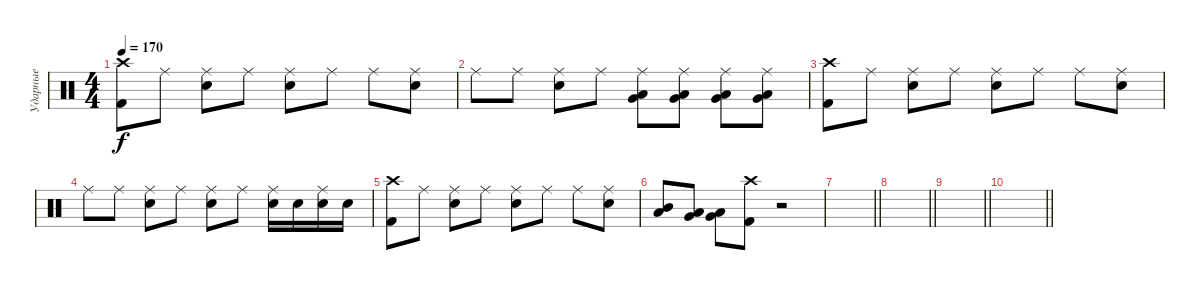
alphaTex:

\track ("Ударные" "Ударные") {instrument percussion}
\staff {score}
\articulation defaults
\ts (4 4)
\tempo 170
\clef neutral
\ks c
("Crash high (hit)" "Kick (hit) 2").8{dy f} "Ride (middle)".8 ("Ride (middle)" "Electric Snare (hit)").8 "Ride (middle)".8 ("Ride (middle)" "Electric Snare (hit)").8 "Ride (middle)".8 "Ride (middle)".8 ("Ride (middle)" "Electric Snare (hit)").8 |
"Ride (middle)".8 "Ride (middle)".8 ("Ride (middle)" "Electric Snare (hit)").8 "Ride (middle)".8 ("Ride (middle)" "Very Low Tom (hit)" "Low Tom (hit)").8 ("Ride (middle)" "Very Low Tom (hit)" "Low Tom (hit)").8 ("Ride (middle)" "Very Low Tom (hit)" "Low Tom (hit)").8 ("Ride (middle)" "Very Low Tom (hit)" "Low Tom (hit)").8 |
("Crash high (hit)" "Kick (hit) 2").8 "Ride (middle)".8 ("Ride (middle)" "Electric Snare (hit)").8 "Ride (middle)".8 ("Ride (middle)" "Electric Snare (hit)").8 "Ride (middle)".8 "Ride (middle)".8 ("Ride (middle)" "Electric Snare (hit)").8 |
"Ride (middle)".8 "Ride (middle)".8 ("Ride (middle)" "Electric Snare (hit)").8 "Ride (middle)".8 ("Ride (middle)" "Electric Snare (hit)").8 "Ride (middle)".8 ("Ride (middle)" "Electric Snare (hit)").16 "Electric Snare (hit)".16 ("Ride (middle)" "Electric Snare (hit)").16 "Electric Snare (hit)".16 |
("Crash high (hit)" "Kick (hit) 2").8 "Ride (middle)".8 ("Ride (middle)" "Electric Snare (hit)").8 "Ride (middle)".8 ("Ride (middle)" "Electric Snare (hit)").8 "Ride (middle)".8 "Ride (middle)".8 ("Ride (middle)" "Electric Snare (hit)").8 |
("Mid Tom (hit)" "Low Tom (hit)").8 ("Low Tom (hit)" "Very Low Tom (hit)").8 ("Very Low Tom (hit)" "Low Floor Tom (hit)").8 ("Crash high (hit)" "Kick (hit) 2").8 r.2 |
\barLineRight lightlight
|
\barLineRight lightlight
|
\barLineRight lightlight
|
\barLineRight lightlight
